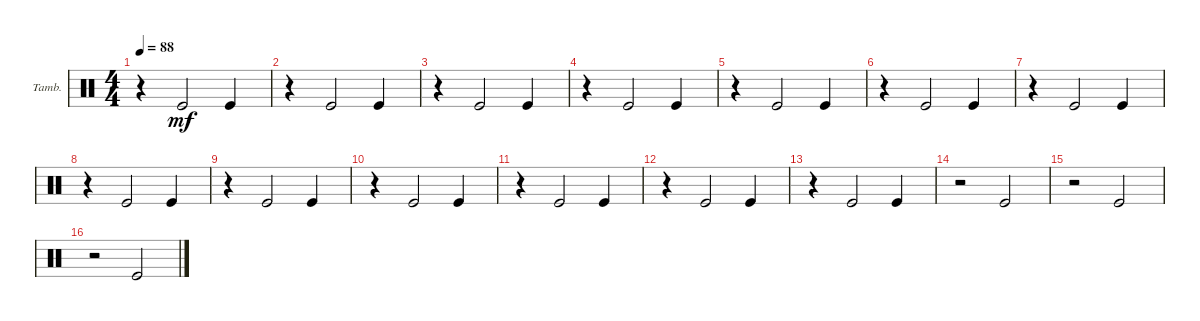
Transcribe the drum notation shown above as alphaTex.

\defaultSystemsLayout 4
\bracketExtendMode groupsimilarinstruments
\firstSystemTrackNameOrientation horizontal
\otherSystemsTrackNameOrientation horizontal
\track ("Tambourine" "Tamb.") {instrument percussion}
\staff {score}
\articulation defaults
\ts (4 4)
\tempo 88
\clef neutral
\ks c
r.4{dy mf} "Kick (hit)".2 "Kick (hit)".4 |
r.4 "Kick (hit)".2 "Kick (hit)".4 |
r.4 "Kick (hit)".2 "Kick (hit)".4 |
r.4 "Kick (hit)".2 "Kick (hit)".4 |
r.4 "Kick (hit)".2 "Kick (hit)".4 |
r.4 "Kick (hit)".2 "Kick (hit)".4 |
r.4 "Kick (hit)".2 "Kick (hit)".4 |
r.4 "Kick (hit)".2 "Kick (hit)".4 |
r.4 "Kick (hit)".2 "Kick (hit)".4 |
r.4 "Kick (hit)".2 "Kick (hit)".4 |
r.4 "Kick (hit)".2 "Kick (hit)".4 |
r.4 "Kick (hit)".2 "Kick (hit)".4 |
r.4 "Kick (hit)".2 "Kick (hit)".4 |
r.2 "Kick (hit)".2 |
r.2 "Kick (hit)".2 |
r.2 "Kick (hit)".2
